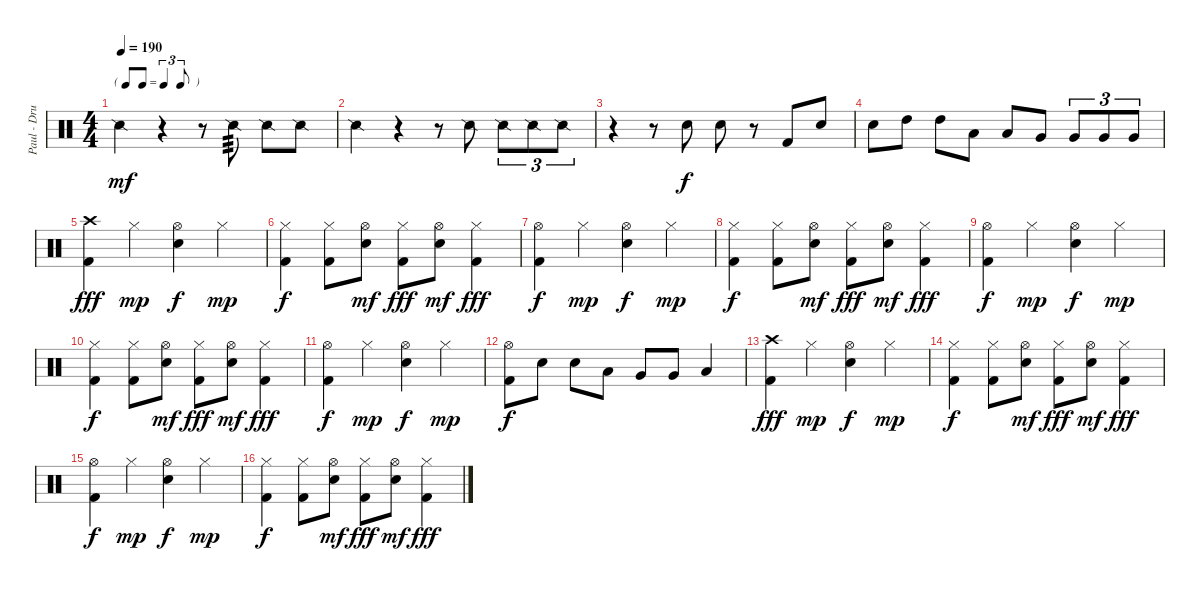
\track ("Paul - Drums" "Paul - Dru") {instrument percussion}
\staff {score}
\articulation defaults
\ts (4 4)
\tf triplet8th
\tempo 190
\clef neutral
\ks c "Snare (side stick) 2".4{dy mf}
r.4 r.8 "Snare (side stick) 2".8{tp 3} "Snare (side stick) 2".8 "Snare (side stick) 2".8 |
"Snare (side stick) 2".4 r.4 r.8 "Snare (side stick) 2".8 "Snare (side stick) 2".8{tu (3 2)} "Snare (side stick) 2".8{tu (3 2)} "Snare (side stick) 2".8{tu (3 2)} |
r.4 r.8 "Electric Snare (hit)".8{dy f} "Electric Snare (hit)".8 r.8 "Kick (hit) 2".8 "Electric Snare (hit)".8 |
"Electric Snare (hit)".8 "High Tom (hit)".8 "High Tom (hit)".8 "Low Tom (hit)".8 "Low Tom (hit)".8 "Very Low Tom (hit)".8 "Very Low Tom (hit)".8{tu (3 2)} "Very Low Tom (hit)".8{tu (3 2)} "Very Low Tom (hit)".8{tu (3 2)} |
("Crash high (hit)" "Kick (hit) 2").4{dy fff} "Hi-Hat (closed)".4{dy mp} ("Hi-Hat (open)" "Electric Snare (hit)").4{dy f} "Hi-Hat (closed)".4{dy mp} |
("Hi-Hat (closed)" "Kick (hit) 2").4{dy f} ("Hi-Hat (closed)" "Kick (hit) 2").8 ("Hi-Hat (open)" "Electric Snare (hit)").8{dy mf} ("Hi-Hat (closed)" "Kick (hit) 2").8{dy fff} ("Hi-Hat (open)" "Electric Snare (hit)").8{dy mf} ("Hi-Hat (closed)" "Kick (hit) 2").4{dy fff} |
("Hi-Hat (open)" "Kick (hit) 2").4{dy f} "Hi-Hat (closed)".4{dy mp} ("Hi-Hat (open)" "Electric Snare (hit)").4{dy f} "Hi-Hat (closed)".4{dy mp} |
("Hi-Hat (closed)" "Kick (hit) 2").4{dy f} ("Hi-Hat (closed)" "Kick (hit) 2").8 ("Hi-Hat (open)" "Electric Snare (hit)").8{dy mf} ("Hi-Hat (closed)" "Kick (hit) 2").8{dy fff} ("Hi-Hat (open)" "Electric Snare (hit)").8{dy mf} ("Hi-Hat (closed)" "Kick (hit) 2").4{dy fff} |
("Hi-Hat (open)" "Kick (hit) 2").4{dy f} "Hi-Hat (closed)".4{dy mp} ("Hi-Hat (open)" "Electric Snare (hit)").4{dy f} "Hi-Hat (closed)".4{dy mp} |
("Hi-Hat (closed)" "Kick (hit) 2").4{dy f} ("Hi-Hat (closed)" "Kick (hit) 2").8 ("Hi-Hat (open)" "Electric Snare (hit)").8{dy mf} ("Hi-Hat (closed)" "Kick (hit) 2").8{dy fff} ("Hi-Hat (open)" "Electric Snare (hit)").8{dy mf} ("Hi-Hat (closed)" "Kick (hit) 2").4{dy fff} |
("Hi-Hat (open)" "Kick (hit) 2").4{dy f} "Hi-Hat (closed)".4{dy mp} ("Hi-Hat (open)" "Electric Snare (hit)").4{dy f} "Hi-Hat (closed)".4{dy mp} |
("Hi-Hat (open)" "Kick (hit) 2").8{dy f} "Electric Snare (hit)".8 "Electric Snare (hit)".8 "Low Tom (hit)".8 "Very Low Tom (hit)".8 "Very Low Tom (hit)".8 "Low Floor Tom (hit)".4 |
("Crash high (hit)" "Kick (hit) 2").4{dy fff} "Hi-Hat (closed)".4{dy mp} ("Hi-Hat (open)" "Electric Snare (hit)").4{dy f} "Hi-Hat (closed)".4{dy mp} |
("Hi-Hat (closed)" "Kick (hit) 2").4{dy f} ("Hi-Hat (closed)" "Kick (hit) 2").8 ("Hi-Hat (open)" "Electric Snare (hit)").8{dy mf} ("Hi-Hat (closed)" "Kick (hit) 2").8{dy fff} ("Hi-Hat (open)" "Electric Snare (hit)").8{dy mf} ("Hi-Hat (closed)" "Kick (hit) 2").4{dy fff} |
("Hi-Hat (open)" "Kick (hit) 2").4{dy f} "Hi-Hat (closed)".4{dy mp} ("Hi-Hat (open)" "Electric Snare (hit)").4{dy f} "Hi-Hat (closed)".4{dy mp} |
("Hi-Hat (closed)" "Kick (hit) 2").4{dy f} ("Hi-Hat (closed)" "Kick (hit) 2").8 ("Hi-Hat (open)" "Electric Snare (hit)").8{dy mf} ("Hi-Hat (closed)" "Kick (hit) 2").8{dy fff} ("Hi-Hat (open)" "Electric Snare (hit)").8{dy mf} ("Hi-Hat (closed)" "Kick (hit) 2").4{dy fff}
